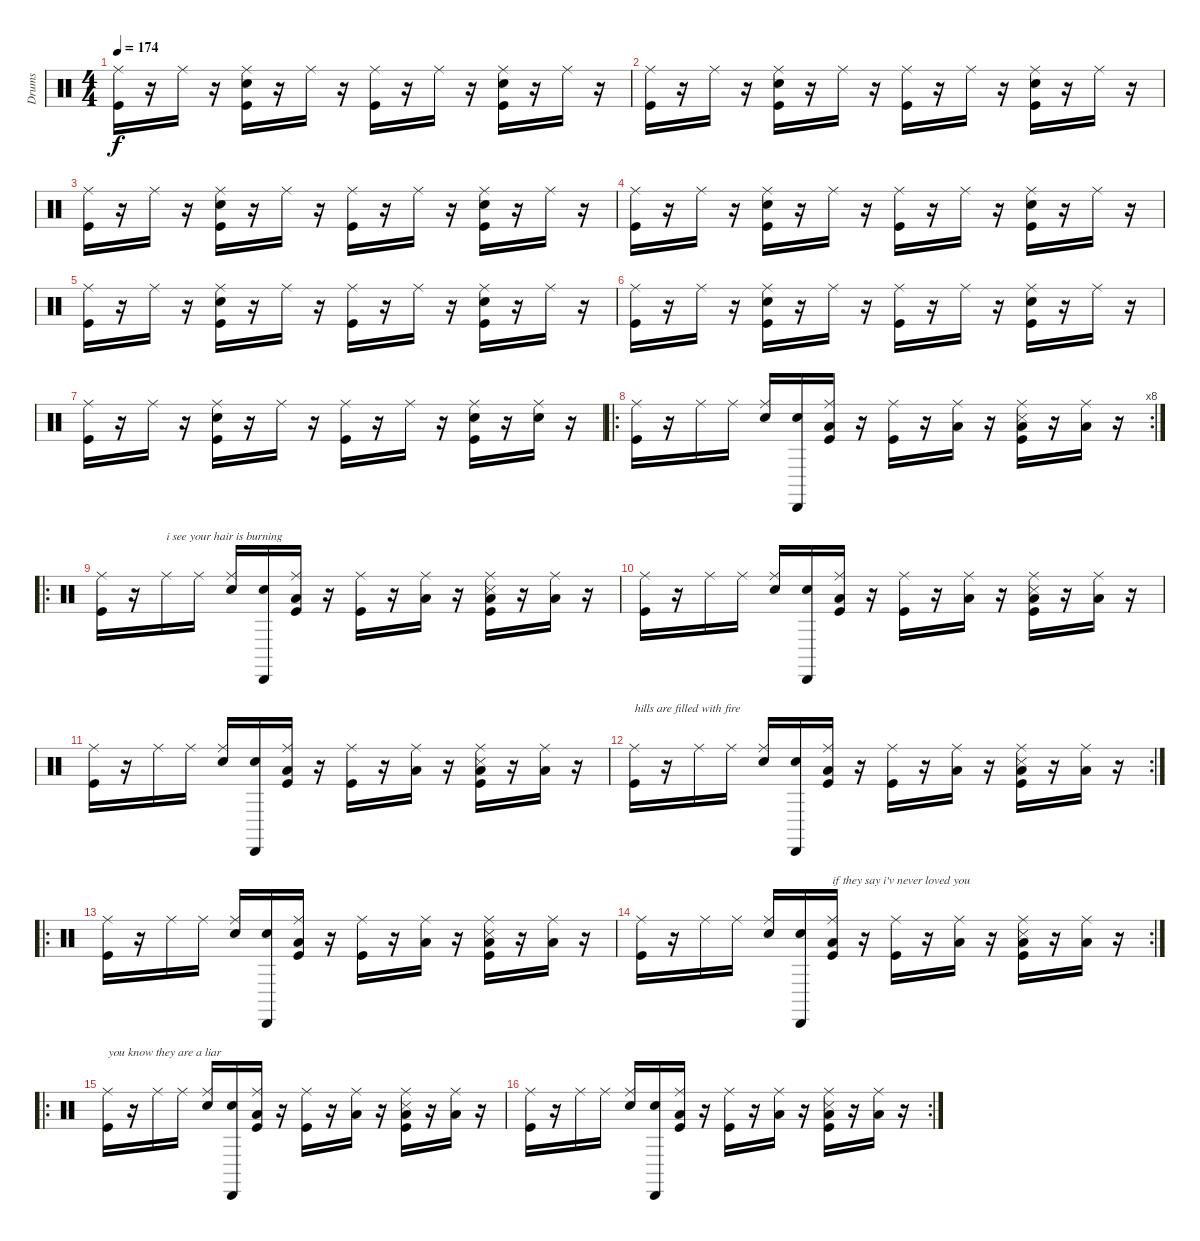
\track ("Drums" "Drums") {instrument percussion}
\staff {score}
\articulation defaults
\ts (4 4)
\tempo 174
\clef neutral
\ks c
("Kick (hit)" "Ride (middle)").16{dy f} r.16 "Ride (middle)".16 r.16 ("Kick (hit)" "Snare (hit) 2" "Ride (middle)").16 r.16 "Ride (middle)".16 r.16 ("Kick (hit)" "Ride (middle)").16 r.16 "Ride (middle)".16 r.16 ("Kick (hit)" "Snare (hit) 2" "Ride (middle)").16 r.16 "Ride (middle)".16 r.16 |
("Kick (hit)" "Ride (middle)").16 r.16 "Ride (middle)".16 r.16 ("Kick (hit)" "Snare (hit) 2" "Ride (middle)").16 r.16 "Ride (middle)".16 r.16 ("Kick (hit)" "Ride (middle)").16 r.16 "Ride (middle)".16 r.16 ("Kick (hit)" "Snare (hit) 2" "Ride (middle)").16 r.16 "Ride (middle)".16 r.16 |
("Kick (hit)" "Ride (middle)").16 r.16 "Ride (middle)".16 r.16 ("Kick (hit)" "Snare (hit) 2" "Ride (middle)").16 r.16 "Ride (middle)".16 r.16 ("Kick (hit)" "Ride (middle)").16 r.16 "Ride (middle)".16 r.16 ("Kick (hit)" "Snare (hit) 2" "Ride (middle)").16 r.16 "Ride (middle)".16 r.16 |
("Kick (hit)" "Ride (middle)").16 r.16 "Ride (middle)".16 r.16 ("Kick (hit)" "Snare (hit) 2" "Ride (middle)").16 r.16 "Ride (middle)".16 r.16 ("Kick (hit)" "Ride (middle)").16 r.16 "Ride (middle)".16 r.16 ("Kick (hit)" "Snare (hit) 2" "Ride (middle)").16 r.16 "Ride (middle)".16 r.16 |
("Kick (hit)" "Ride (middle)").16 r.16 "Ride (middle)".16 r.16 ("Kick (hit)" "Snare (hit) 2" "Ride (middle)").16 r.16 "Ride (middle)".16 r.16 ("Kick (hit)" "Ride (middle)").16 r.16 "Ride (middle)".16 r.16 ("Kick (hit)" "Snare (hit) 2" "Ride (middle)").16 r.16 "Ride (middle)".16 r.16 |
("Kick (hit)" "Ride (middle)").16 r.16 "Ride (middle)".16 r.16 ("Kick (hit)" "Snare (hit) 2" "Ride (middle)").16 r.16 "Ride (middle)".16 r.16 ("Kick (hit)" "Ride (middle)").16 r.16 "Ride (middle)".16 r.16 ("Kick (hit)" "Snare (hit) 2" "Ride (middle)").16 r.16 "Ride (middle)".16 r.16 |
("Kick (hit)" "Ride (middle)").16 r.16 "Ride (middle)".16 r.16 ("Kick (hit)" "Snare (hit) 2" "Ride (middle)").16 r.16 "Ride (middle)".16 r.16 ("Kick (hit)" "Ride (middle)").16 r.16 "Ride (middle)".16 r.16 ("Kick (hit)" "Snare (hit) 2" "Ride (middle)").16 r.16 ("Snare (hit) 2" "Ride (middle)").16 r.16 |
\ro
\rc 8
("Kick (hit)" "Ride (middle)").16 r.16 "Ride (middle)".16 "Ride (middle)".16 ("Snare (hit)" "Ride (middle)").16 ("Snare (hit)" "Cabasa (hit)").16 ("Low Floor Tom (hit)" "Kick (hit)" "Ride (middle)").16 r.16 ("Kick (hit)" "Ride (middle)").16 r.16 ("Low Floor Tom (hit)" "Ride (middle)").16 r.16 ("Low Floor Tom (hit)" "Kick (hit)" "Snare (side stick) 3" "Ride (middle)").16 r.16 ("Low Floor Tom (hit)" "Ride (middle)").16 r.16 |
\ro
("Kick (hit)" "Ride (middle)").16 r.16 "Ride (middle)".16{txt "i see your hair is burning"} "Ride (middle)".16 ("Snare (hit)" "Ride (middle)").16 ("Snare (hit)" "Cabasa (hit)").16 ("Low Floor Tom (hit)" "Kick (hit)" "Ride (middle)").16 r.16 ("Kick (hit)" "Ride (middle)").16 r.16 ("Low Floor Tom (hit)" "Ride (middle)").16 r.16 ("Low Floor Tom (hit)" "Kick (hit)" "Snare (side stick) 3" "Ride (middle)").16 r.16 ("Low Floor Tom (hit)" "Ride (middle)").16 r.16 |
("Kick (hit)" "Ride (middle)").16 r.16 "Ride (middle)".16 "Ride (middle)".16 ("Snare (hit)" "Ride (middle)").16 ("Snare (hit)" "Cabasa (hit)").16 ("Low Floor Tom (hit)" "Kick (hit)" "Ride (middle)").16 r.16 ("Kick (hit)" "Ride (middle)").16 r.16 ("Low Floor Tom (hit)" "Ride (middle)").16 r.16 ("Low Floor Tom (hit)" "Kick (hit)" "Snare (side stick) 3" "Ride (middle)").16 r.16 ("Low Floor Tom (hit)" "Ride (middle)").16 r.16 |
("Kick (hit)" "Ride (middle)").16 r.16 "Ride (middle)".16 "Ride (middle)".16 ("Snare (hit)" "Ride (middle)").16 ("Snare (hit)" "Cabasa (hit)").16 ("Low Floor Tom (hit)" "Kick (hit)" "Ride (middle)").16 r.16 ("Kick (hit)" "Ride (middle)").16 r.16 ("Low Floor Tom (hit)" "Ride (middle)").16 r.16 ("Low Floor Tom (hit)" "Kick (hit)" "Snare (side stick) 3" "Ride (middle)").16 r.16 ("Low Floor Tom (hit)" "Ride (middle)").16 r.16 |
\rc 2
("Kick (hit)" "Ride (middle)").16{txt "hills are filled with fire"} r.16 "Ride (middle)".16 "Ride (middle)".16 ("Snare (hit)" "Ride (middle)").16 ("Snare (hit)" "Cabasa (hit)").16 ("Low Floor Tom (hit)" "Kick (hit)" "Ride (middle)").16 r.16 ("Kick (hit)" "Ride (middle)").16 r.16 ("Low Floor Tom (hit)" "Ride (middle)").16 r.16 ("Low Floor Tom (hit)" "Kick (hit)" "Snare (side stick) 3" "Ride (middle)").16 r.16 ("Low Floor Tom (hit)" "Ride (middle)").16 r.16 |
\ro
("Kick (hit)" "Ride (middle)").16 r.16 "Ride (middle)".16 "Ride (middle)".16 ("Snare (hit)" "Ride (middle)").16 ("Snare (hit)" "Cabasa (hit)").16 ("Low Floor Tom (hit)" "Kick (hit)" "Ride (middle)").16 r.16 ("Kick (hit)" "Ride (middle)").16 r.16 ("Low Floor Tom (hit)" "Ride (middle)").16 r.16 ("Low Floor Tom (hit)" "Kick (hit)" "Snare (side stick) 3" "Ride (middle)").16 r.16 ("Low Floor Tom (hit)" "Ride (middle)").16 r.16 |
\rc 2
("Kick (hit)" "Ride (middle)").16 r.16 "Ride (middle)".16 "Ride (middle)".16 ("Snare (hit)" "Ride (middle)").16 ("Snare (hit)" "Cabasa (hit)").16 ("Low Floor Tom (hit)" "Kick (hit)" "Ride (middle)").16{txt "if they say i'v never loved you"} r.16 ("Kick (hit)" "Ride (middle)").16 r.16 ("Low Floor Tom (hit)" "Ride (middle)").16 r.16 ("Low Floor Tom (hit)" "Kick (hit)" "Snare (side stick) 3" "Ride (middle)").16 r.16 ("Low Floor Tom (hit)" "Ride (middle)").16 r.16 |
\ro
("Kick (hit)" "Ride (middle)").16{txt "you know they are a liar"} r.16 "Ride (middle)".16 "Ride (middle)".16 ("Snare (hit)" "Ride (middle)").16 ("Snare (hit)" "Cabasa (hit)").16 ("Low Floor Tom (hit)" "Kick (hit)" "Ride (middle)").16 r.16 ("Kick (hit)" "Ride (middle)").16 r.16 ("Low Floor Tom (hit)" "Ride (middle)").16 r.16 ("Low Floor Tom (hit)" "Kick (hit)" "Snare (side stick) 3" "Ride (middle)").16 r.16 ("Low Floor Tom (hit)" "Ride (middle)").16 r.16 |
\rc 2
("Kick (hit)" "Ride (middle)").16 r.16 "Ride (middle)".16 "Ride (middle)".16 ("Snare (hit)" "Ride (middle)").16 ("Snare (hit)" "Cabasa (hit)").16 ("Low Floor Tom (hit)" "Kick (hit)" "Ride (middle)").16 r.16 ("Kick (hit)" "Ride (middle)").16 r.16 ("Low Floor Tom (hit)" "Ride (middle)").16 r.16 ("Low Floor Tom (hit)" "Kick (hit)" "Snare (side stick) 3" "Ride (middle)").16 r.16 ("Low Floor Tom (hit)" "Ride (middle)").16 r.16
